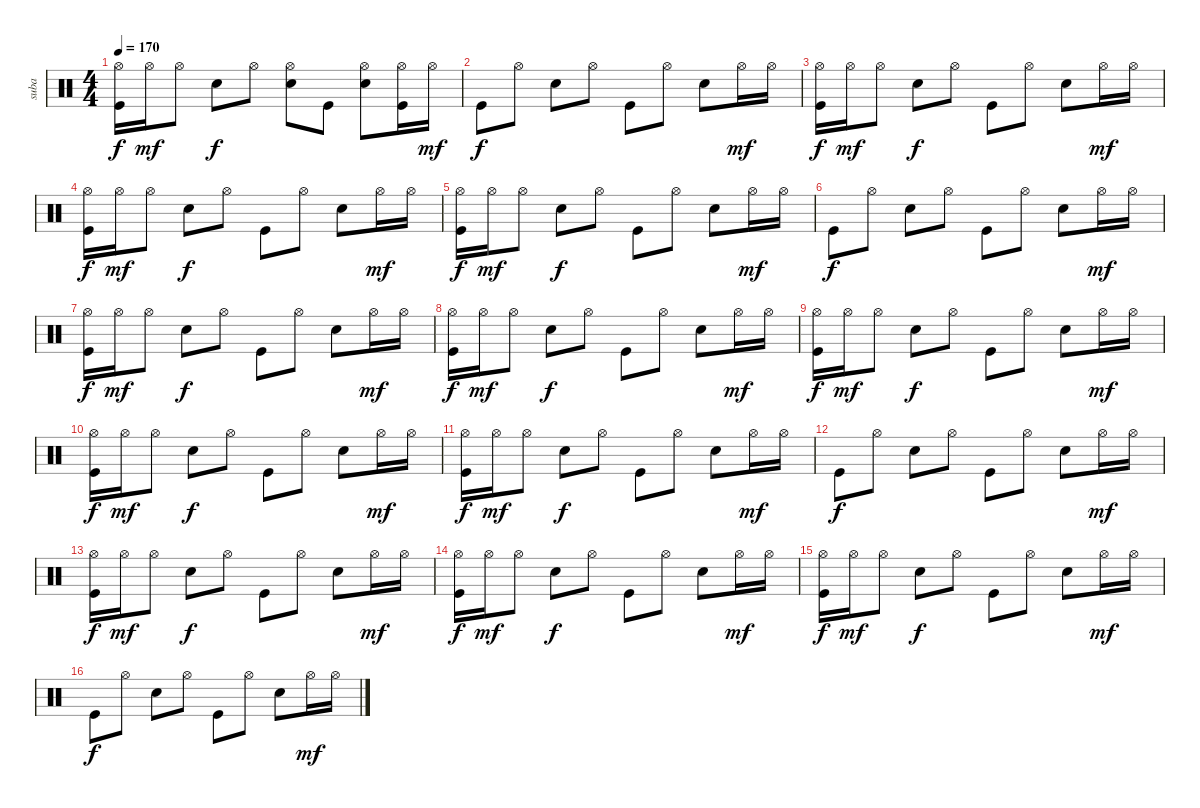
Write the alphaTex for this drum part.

\track ("suba" "suba") {instrument percussion}
\staff {score}
\articulation defaults
\ts (4 4)
\tempo 170
\clef neutral
\ks c
("Hi-Hat (open)" "Kick (hit)").16{dy f} "Hi-Hat (open)".16{dy mf} "Hi-Hat (open)".8 "Electric Snare (hit)".8{dy f} "Hi-Hat (open)".8 ("Hi-Hat (open)" "Electric Snare (hit)").8 "Kick (hit)".8 ("Hi-Hat (open)" "Electric Snare (hit)").8 ("Hi-Hat (open)" "Kick (hit)").16 "Hi-Hat (open)".16{dy mf} |
"Kick (hit)".8{dy f} "Hi-Hat (open)".8 "Electric Snare (hit)".8 "Hi-Hat (open)".8 "Kick (hit)".8 "Hi-Hat (open)".8 "Electric Snare (hit)".8 "Hi-Hat (open)".16{dy mf} "Hi-Hat (open)".16 |
("Hi-Hat (open)" "Kick (hit)").16{dy f} "Hi-Hat (open)".16{dy mf} "Hi-Hat (open)".8 "Electric Snare (hit)".8{dy f} "Hi-Hat (open)".8 "Kick (hit)".8 "Hi-Hat (open)".8 "Electric Snare (hit)".8 "Hi-Hat (open)".16{dy mf} "Hi-Hat (open)".16 |
("Hi-Hat (open)" "Kick (hit)").16{dy f} "Hi-Hat (open)".16{dy mf} "Hi-Hat (open)".8 "Electric Snare (hit)".8{dy f} "Hi-Hat (open)".8 "Kick (hit)".8 "Hi-Hat (open)".8 "Electric Snare (hit)".8 "Hi-Hat (open)".16{dy mf} "Hi-Hat (open)".16 |
("Hi-Hat (open)" "Kick (hit)").16{dy f} "Hi-Hat (open)".16{dy mf} "Hi-Hat (open)".8 "Electric Snare (hit)".8{dy f} "Hi-Hat (open)".8 "Kick (hit)".8 "Hi-Hat (open)".8 "Electric Snare (hit)".8 "Hi-Hat (open)".16{dy mf} "Hi-Hat (open)".16 |
"Kick (hit)".8{dy f} "Hi-Hat (open)".8 "Electric Snare (hit)".8 "Hi-Hat (open)".8 "Kick (hit)".8 "Hi-Hat (open)".8 "Electric Snare (hit)".8 "Hi-Hat (open)".16{dy mf} "Hi-Hat (open)".16 |
("Hi-Hat (open)" "Kick (hit)").16{dy f} "Hi-Hat (open)".16{dy mf} "Hi-Hat (open)".8 "Electric Snare (hit)".8{dy f} "Hi-Hat (open)".8 "Kick (hit)".8 "Hi-Hat (open)".8 "Electric Snare (hit)".8 "Hi-Hat (open)".16{dy mf} "Hi-Hat (open)".16 |
("Hi-Hat (open)" "Kick (hit)").16{dy f} "Hi-Hat (open)".16{dy mf} "Hi-Hat (open)".8 "Electric Snare (hit)".8{dy f} "Hi-Hat (open)".8 "Kick (hit)".8 "Hi-Hat (open)".8 "Electric Snare (hit)".8 "Hi-Hat (open)".16{dy mf} "Hi-Hat (open)".16 |
("Hi-Hat (open)" "Kick (hit)").16{dy f} "Hi-Hat (open)".16{dy mf} "Hi-Hat (open)".8 "Electric Snare (hit)".8{dy f} "Hi-Hat (open)".8 "Kick (hit)".8 "Hi-Hat (open)".8 "Electric Snare (hit)".8 "Hi-Hat (open)".16{dy mf} "Hi-Hat (open)".16 |
("Hi-Hat (open)" "Kick (hit)").16{dy f} "Hi-Hat (open)".16{dy mf} "Hi-Hat (open)".8 "Electric Snare (hit)".8{dy f} "Hi-Hat (open)".8 "Kick (hit)".8 "Hi-Hat (open)".8 "Electric Snare (hit)".8 "Hi-Hat (open)".16{dy mf} "Hi-Hat (open)".16 |
("Hi-Hat (open)" "Kick (hit)").16{dy f} "Hi-Hat (open)".16{dy mf} "Hi-Hat (open)".8 "Electric Snare (hit)".8{dy f} "Hi-Hat (open)".8 "Kick (hit)".8 "Hi-Hat (open)".8 "Electric Snare (hit)".8 "Hi-Hat (open)".16{dy mf} "Hi-Hat (open)".16 |
"Kick (hit)".8{dy f} "Hi-Hat (open)".8 "Electric Snare (hit)".8 "Hi-Hat (open)".8 "Kick (hit)".8 "Hi-Hat (open)".8 "Electric Snare (hit)".8 "Hi-Hat (open)".16{dy mf} "Hi-Hat (open)".16 |
("Hi-Hat (open)" "Kick (hit)").16{dy f} "Hi-Hat (open)".16{dy mf} "Hi-Hat (open)".8 "Electric Snare (hit)".8{dy f} "Hi-Hat (open)".8 "Kick (hit)".8 "Hi-Hat (open)".8 "Electric Snare (hit)".8 "Hi-Hat (open)".16{dy mf} "Hi-Hat (open)".16 |
("Hi-Hat (open)" "Kick (hit)").16{dy f} "Hi-Hat (open)".16{dy mf} "Hi-Hat (open)".8 "Electric Snare (hit)".8{dy f} "Hi-Hat (open)".8 "Kick (hit)".8 "Hi-Hat (open)".8 "Electric Snare (hit)".8 "Hi-Hat (open)".16{dy mf} "Hi-Hat (open)".16 |
("Hi-Hat (open)" "Kick (hit)").16{dy f} "Hi-Hat (open)".16{dy mf} "Hi-Hat (open)".8 "Electric Snare (hit)".8{dy f} "Hi-Hat (open)".8 "Kick (hit)".8 "Hi-Hat (open)".8 "Electric Snare (hit)".8 "Hi-Hat (open)".16{dy mf} "Hi-Hat (open)".16 |
"Kick (hit)".8{dy f} "Hi-Hat (open)".8 "Electric Snare (hit)".8 "Hi-Hat (open)".8 "Kick (hit)".8 "Hi-Hat (open)".8 "Electric Snare (hit)".8 "Hi-Hat (open)".16{dy mf} "Hi-Hat (open)".16
